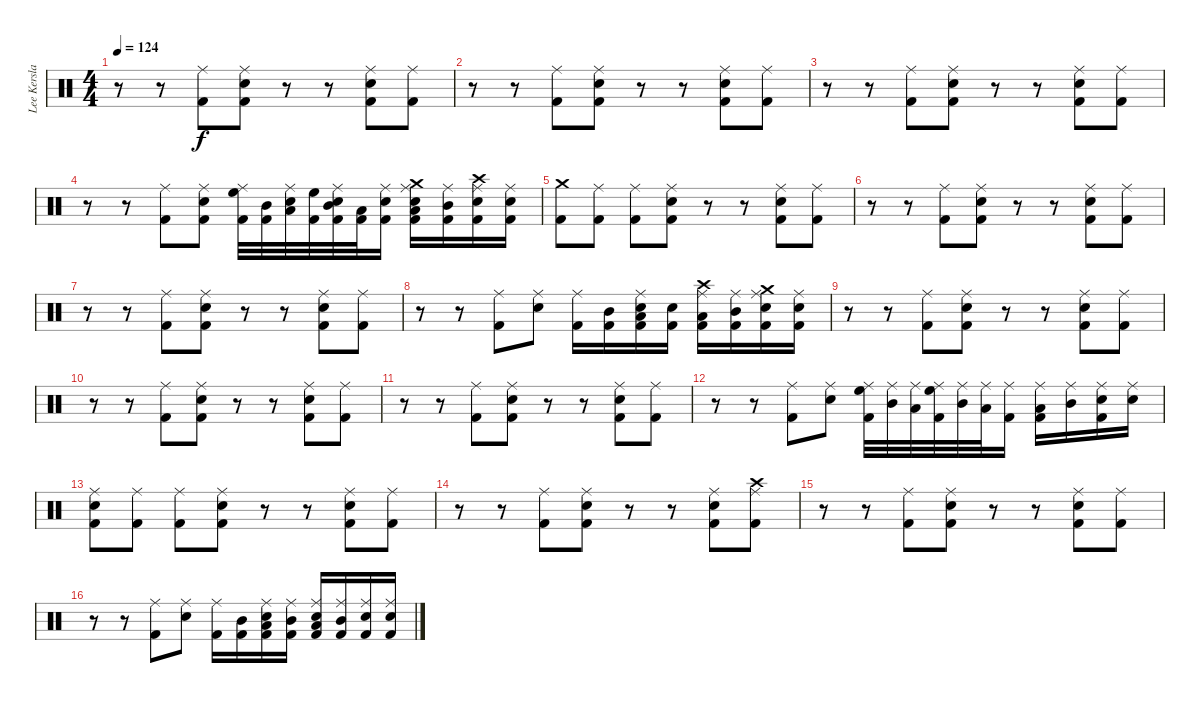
\track ("Lee Kerslake" "Lee Kersla") {instrument percussion}
\staff {score}
\articulation defaults
\ts (4 4)
\tempo 124
\clef neutral
\ks c
r.8{dy f} r.8 ("Kick (hit) 2" "Ride (middle)").8 ("Kick (hit) 2" "Electric Snare (hit)" "Ride (middle)").8 r.8 r.8 ("Kick (hit) 2" "Electric Snare (hit)" "Ride (middle)").8 ("Kick (hit) 2" "Ride (middle)").8 |
r.8 r.8 ("Kick (hit) 2" "Ride (middle)").8 ("Kick (hit) 2" "Electric Snare (hit)" "Ride (middle)").8 r.8 r.8 ("Kick (hit) 2" "Electric Snare (hit)" "Ride (middle)").8 ("Kick (hit) 2" "Ride (middle)").8 |
r.8 r.8 ("Kick (hit) 2" "Ride (middle)").8 ("Kick (hit) 2" "Electric Snare (hit)" "Ride (middle)").8 r.8 r.8 ("Kick (hit) 2" "Electric Snare (hit)" "Ride (middle)").8 ("Kick (hit) 2" "Ride (middle)").8 |
r.8 r.8 ("Kick (hit) 2" "Ride (middle)").8 ("Kick (hit) 2" "Electric Snare (hit)" "Ride (middle)").8 ("Kick (hit) 2" "High Floor Tom (hit)" "Ride (middle)").32 ("Kick (hit) 2" "Mid Tom (hit)").32 ("Low Tom (hit)" "Electric Snare (hit)" "Ride (middle)").32 ("Kick (hit) 2" "High Floor Tom (hit)").32 ("Kick (hit) 2" "Mid Tom (hit)" "Electric Snare (hit)" "Ride (middle)").32 ("Low Tom (hit)" "Kick (hit) 2").32 ("Kick (hit) 2" "Electric Snare (hit)" "Ride (middle)").16 ("Kick (hit) 2" "Low Tom (hit)" "Electric Snare (hit)" "Crash medium (hit)" "Ride (middle)").16 ("Kick (hit) 2" "Mid Tom (hit)" "Ride (middle)").16 ("Kick (hit) 2" "Electric Snare (hit)" "Crash high (hit)" "Ride (middle)").16 ("Kick (hit) 2" "Electric Snare (hit)" "Ride (middle)").16 |
("Kick (hit) 2" "Crash medium (hit)").8 ("Kick (hit) 2" "Ride (middle)").8 ("Kick (hit) 2" "Ride (middle)").8 ("Kick (hit) 2" "Electric Snare (hit)" "Ride (middle)").8 r.8 r.8 ("Kick (hit) 2" "Electric Snare (hit)" "Ride (middle)").8 ("Kick (hit) 2" "Ride (middle)").8 |
r.8 r.8 ("Kick (hit) 2" "Ride (middle)").8 ("Kick (hit) 2" "Electric Snare (hit)" "Ride (middle)").8 r.8 r.8 ("Kick (hit) 2" "Electric Snare (hit)" "Ride (middle)").8 ("Kick (hit) 2" "Ride (middle)").8 |
r.8 r.8 ("Kick (hit) 2" "Ride (middle)").8 ("Kick (hit) 2" "Electric Snare (hit)" "Ride (middle)").8 r.8 r.8 ("Kick (hit) 2" "Electric Snare (hit)" "Ride (middle)").8 ("Kick (hit) 2" "Ride (middle)").8 |
r.8 r.8 ("Kick (hit) 2" "Ride (middle)").8 ("Electric Snare (hit)" "Ride (middle)").8 ("Kick (hit) 2" "Ride (middle)").16 ("Kick (hit) 2" "Mid Tom (hit)").16 ("Low Tom (hit)" "Kick (hit) 2" "Electric Snare (hit)" "Ride (middle)").16 ("Kick (hit) 2" "Electric Snare (hit)").16 ("Kick (hit) 2" "Low Tom (hit)" "Crash high (hit)" "Ride (middle)").16 ("Kick (hit) 2" "Mid Tom (hit)" "Ride (middle)").16 ("Kick (hit) 2" "Electric Snare (hit)" "Crash medium (hit)" "Ride (middle)").16 ("Kick (hit) 2" "Electric Snare (hit)" "Ride (middle)").16 |
r.8 r.8 ("Kick (hit) 2" "Ride (middle)").8 ("Kick (hit) 2" "Electric Snare (hit)" "Ride (middle)").8 r.8 r.8 ("Kick (hit) 2" "Electric Snare (hit)" "Ride (middle)").8 ("Kick (hit) 2" "Ride (middle)").8 |
r.8 r.8 ("Kick (hit) 2" "Ride (middle)").8 ("Kick (hit) 2" "Electric Snare (hit)" "Ride (middle)").8 r.8 r.8 ("Kick (hit) 2" "Electric Snare (hit)" "Ride (middle)").8 ("Kick (hit) 2" "Ride (middle)").8 |
r.8 r.8 ("Kick (hit) 2" "Ride (middle)").8 ("Kick (hit) 2" "Electric Snare (hit)" "Ride (middle)").8 r.8 r.8 ("Kick (hit) 2" "Electric Snare (hit)" "Ride (middle)").8 ("Kick (hit) 2" "Ride (middle)").8 |
r.8 r.8 ("Kick (hit) 2" "Ride (middle)").8 ("Electric Snare (hit)" "Ride (middle)").8 ("Kick (hit) 2" "High Floor Tom (hit)" "Ride (middle)").32 ("Mid Tom (hit)" "Ride (middle)").32 ("Low Tom (hit)" "Ride (middle)").32 ("Kick (hit) 2" "High Floor Tom (hit)" "Ride (middle)").32 ("Mid Tom (hit)" "Ride (middle)").32 ("Low Tom (hit)" "Ride (middle)").32 ("Kick (hit) 2" "Ride (middle)").16 ("Kick (hit) 2" "Low Tom (hit)" "Ride (middle)").16 ("Mid Tom (hit)" "Ride (middle)").16 ("Kick (hit) 2" "Electric Snare (hit)" "Ride (middle)").16 ("Electric Snare (hit)" "Ride (middle)").16 |
("Kick (hit) 2" "Electric Snare (hit)" "Ride (middle)").8 ("Kick (hit) 2" "Ride (middle)").8 ("Kick (hit) 2" "Ride (middle)").8 ("Kick (hit) 2" "Electric Snare (hit)" "Ride (middle)").8 r.8 r.8 ("Kick (hit) 2" "Electric Snare (hit)" "Ride (middle)").8 ("Kick (hit) 2" "Ride (middle)").8 |
r.8 r.8 ("Kick (hit) 2" "Ride (middle)").8 ("Kick (hit) 2" "Electric Snare (hit)" "Ride (middle)").8 r.8 r.8 ("Kick (hit) 2" "Electric Snare (hit)" "Ride (middle)").8 ("Kick (hit) 2" "Crash high (hit)" "Ride (middle)").8 |
r.8 r.8 ("Kick (hit) 2" "Ride (middle)").8 ("Kick (hit) 2" "Electric Snare (hit)" "Ride (middle)").8 r.8 r.8 ("Kick (hit) 2" "Electric Snare (hit)" "Ride (middle)").8 ("Kick (hit) 2" "Ride (middle)").8 |
r.8 r.8 ("Kick (hit) 2" "Ride (middle)").8 ("Electric Snare (hit)" "Ride (middle)").8 ("Kick (hit) 2" "Ride (middle)").16 ("Kick (hit) 2" "Mid Tom (hit)").16 ("Low Tom (hit)" "Kick (hit) 2" "Electric Snare (hit)" "Ride (middle)").16 ("Kick (hit) 2" "Mid Tom (hit)" "Ride (middle)").16 ("Kick (hit) 2" "Low Tom (hit)" "Electric Snare (hit)" "Ride (middle)").16 ("Kick (hit) 2" "Mid Tom (hit)" "Ride (middle)").16 ("Kick (hit) 2" "Electric Snare (hit)" "Ride (middle)").16 ("Kick (hit) 2" "Electric Snare (hit)" "Ride (middle)").16
